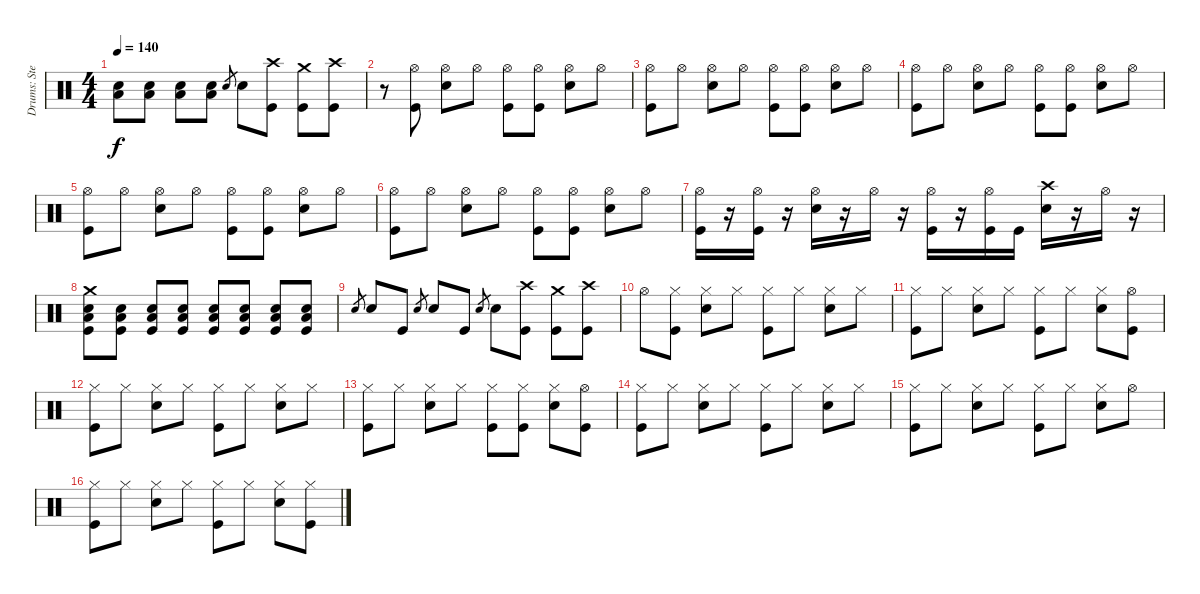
\track ("Drums: Steven Adler" "Drums: Ste") {instrument percussion}
\staff {score}
\articulation defaults
\ts (4 4)
\tempo 140
\clef neutral
\ks c
("Electric Snare (hit)" "Low Floor Tom (hit)").8{dy f} ("Electric Snare (hit)" "Low Floor Tom (hit)").8 ("Electric Snare (hit)" "Low Floor Tom (hit)").8 ("Electric Snare (hit)" "Low Floor Tom (hit)").8 "Electric Snare (hit)".8{gr} "Electric Snare (hit)".8 ("Crash high (hit)" "Kick (hit)").8 ("Crash medium (hit)" "Kick (hit)").8 ("Crash high (hit)" "Kick (hit)").8 |
r.8 ("Hi-Hat (open)" "Kick (hit)").8 ("Hi-Hat (open)" "Electric Snare (hit)").8 "Hi-Hat (open)".8 ("Hi-Hat (open)" "Kick (hit)").8 ("Hi-Hat (open)" "Kick (hit)").8 ("Hi-Hat (open)" "Electric Snare (hit)").8 "Hi-Hat (open)".8 |
("Hi-Hat (open)" "Kick (hit)").8 "Hi-Hat (open)".8 ("Hi-Hat (open)" "Electric Snare (hit)").8 "Hi-Hat (open)".8 ("Hi-Hat (open)" "Kick (hit)").8 ("Hi-Hat (open)" "Kick (hit)").8 ("Hi-Hat (open)" "Electric Snare (hit)").8 "Hi-Hat (open)".8 |
("Hi-Hat (open)" "Kick (hit)").8 "Hi-Hat (open)".8 ("Hi-Hat (open)" "Electric Snare (hit)").8 "Hi-Hat (open)".8 ("Hi-Hat (open)" "Kick (hit)").8 ("Hi-Hat (open)" "Kick (hit)").8 ("Hi-Hat (open)" "Electric Snare (hit)").8 "Hi-Hat (open)".8 |
("Hi-Hat (open)" "Kick (hit)").8 "Hi-Hat (open)".8 ("Hi-Hat (open)" "Electric Snare (hit)").8 "Hi-Hat (open)".8 ("Hi-Hat (open)" "Kick (hit)").8 ("Hi-Hat (open)" "Kick (hit)").8 ("Hi-Hat (open)" "Electric Snare (hit)").8 "Hi-Hat (open)".8 |
("Hi-Hat (open)" "Kick (hit)").8 "Hi-Hat (open)".8 ("Hi-Hat (open)" "Electric Snare (hit)").8 "Hi-Hat (open)".8 ("Hi-Hat (open)" "Kick (hit)").8 ("Hi-Hat (open)" "Kick (hit)").8 ("Hi-Hat (open)" "Electric Snare (hit)").8 "Hi-Hat (open)".8 |
("Hi-Hat (open)" "Kick (hit)").16 r.16 ("Hi-Hat (open)" "Kick (hit)").16 r.16 ("Hi-Hat (open)" "Electric Snare (hit)").16 r.16 "Hi-Hat (open)".16 r.16 ("Hi-Hat (open)" "Kick (hit)").16 r.16 ("Hi-Hat (open)" "Kick (hit)").16 "Kick (hit)".16 ("Crash high (hit)" "Electric Snare (hit)").16 r.16 "Hi-Hat (open)".16 r.16 |
("Crash medium (hit)" "Electric Snare (hit)" "Low Floor Tom (hit)" "Kick (hit)").8 ("Electric Snare (hit)" "Low Floor Tom (hit)" "Kick (hit)").8 ("Electric Snare (hit)" "Low Floor Tom (hit)" "Kick (hit)").8 ("Electric Snare (hit)" "Low Floor Tom (hit)" "Kick (hit)").8 ("Electric Snare (hit)" "Low Floor Tom (hit)" "Kick (hit)").8 ("Electric Snare (hit)" "Low Floor Tom (hit)" "Kick (hit)").8 ("Electric Snare (hit)" "Low Floor Tom (hit)" "Kick (hit)").8 ("Electric Snare (hit)" "Low Floor Tom (hit)" "Kick (hit)").8 |
"Electric Snare (hit)".8{gr} "Electric Snare (hit)".8 "Kick (hit)".8 "Electric Snare (hit)".8{gr} "Electric Snare (hit)".8 "Kick (hit)".8 "Electric Snare (hit)".8{gr} "Electric Snare (hit)".8 ("Crash high (hit)" "Kick (hit)").8 ("Crash medium (hit)" "Kick (hit)").8 ("Crash high (hit)" "Kick (hit)").8 |
"Hi-Hat (open)".8 ("Hi-Hat (closed)" "Kick (hit)").8 ("Hi-Hat (closed)" "Electric Snare (hit)").8 "Hi-Hat (closed)".8 ("Hi-Hat (closed)" "Kick (hit)").8 "Hi-Hat (closed)".8 ("Hi-Hat (closed)" "Electric Snare (hit)").8 "Hi-Hat (closed)".8 |
("Hi-Hat (closed)" "Kick (hit)").8 "Hi-Hat (closed)".8 ("Hi-Hat (closed)" "Electric Snare (hit)").8 "Hi-Hat (closed)".8 ("Hi-Hat (closed)" "Kick (hit)").8 "Hi-Hat (closed)".8 ("Hi-Hat (closed)" "Electric Snare (hit)").8 ("Hi-Hat (open)" "Kick (hit)").8 |
("Hi-Hat (closed)" "Kick (hit)").8 "Hi-Hat (closed)".8 ("Hi-Hat (closed)" "Electric Snare (hit)").8 "Hi-Hat (closed)".8 ("Hi-Hat (closed)" "Kick (hit)").8 "Hi-Hat (closed)".8 ("Hi-Hat (closed)" "Electric Snare (hit)").8 "Hi-Hat (closed)".8 |
("Hi-Hat (closed)" "Kick (hit)").8 "Hi-Hat (closed)".8 ("Hi-Hat (closed)" "Electric Snare (hit)").8 "Hi-Hat (closed)".8 ("Hi-Hat (closed)" "Kick (hit)").8 ("Hi-Hat (closed)" "Kick (hit)").8 ("Hi-Hat (closed)" "Electric Snare (hit)").8 ("Hi-Hat (open)" "Kick (hit)").8 |
("Hi-Hat (closed)" "Kick (hit)").8 "Hi-Hat (closed)".8 ("Hi-Hat (closed)" "Electric Snare (hit)").8 "Hi-Hat (closed)".8 ("Hi-Hat (closed)" "Kick (hit)").8 "Hi-Hat (closed)".8 ("Hi-Hat (closed)" "Electric Snare (hit)").8 "Hi-Hat (closed)".8 |
("Hi-Hat (closed)" "Kick (hit)").8 "Hi-Hat (closed)".8 ("Hi-Hat (closed)" "Electric Snare (hit)").8 "Hi-Hat (closed)".8 ("Hi-Hat (closed)" "Kick (hit)").8 "Hi-Hat (closed)".8 ("Hi-Hat (closed)" "Electric Snare (hit)").8 "Hi-Hat (open)".8 |
("Hi-Hat (closed)" "Kick (hit)").8 "Hi-Hat (closed)".8 ("Hi-Hat (closed)" "Electric Snare (hit)").8 "Hi-Hat (closed)".8 ("Hi-Hat (closed)" "Kick (hit)").8 "Hi-Hat (closed)".8 ("Hi-Hat (closed)" "Electric Snare (hit)").8 ("Hi-Hat (closed)" "Kick (hit)").8
